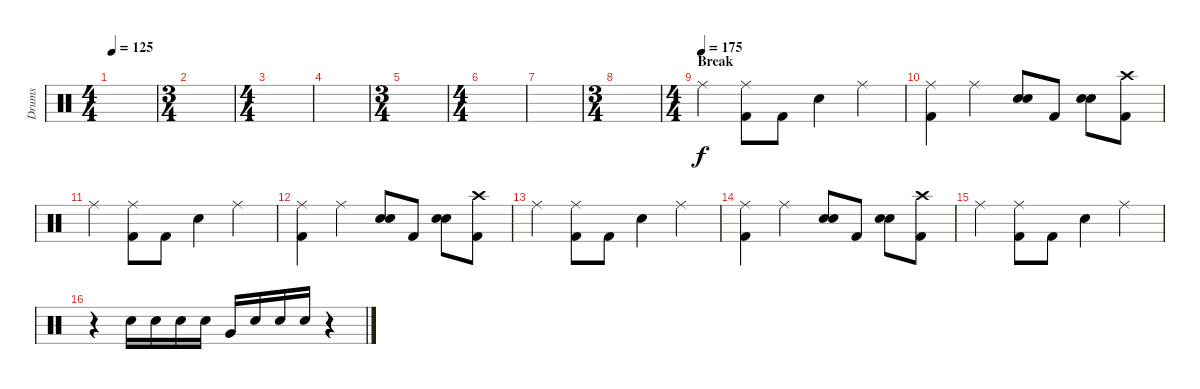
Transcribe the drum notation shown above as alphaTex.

\track ("Drums" "Drums") {instrument percussion}
\staff {score}
\articulation defaults
\ts (4 4)
\tempo 125
\clef neutral
\ks c
|
\ts (3 4)
|
\ts (4 4)
|
|
\ts (3 4)
|
\ts (4 4)
|
|
\ts (3 4)
|
\ts (4 4)
\section ("" "Break")
\tempo (175)
"Ride (middle)".4 ("Ride (middle)" "Kick (hit) 2").8 "Kick (hit) 2".8 "Snare (hit) 2".4 "Ride (middle)".4 |
("Ride (middle)" "Kick (hit) 2").4 "Ride (middle)".4 ("Snare (hit) 2" "Snare (hit) 2").8 "Kick (hit) 2".8 ("Snare (hit) 2" "Snare (hit) 2").8 ("Crash high (hit)" "Kick (hit) 2").8 |
"Ride (middle)".4 ("Ride (middle)" "Kick (hit) 2").8 "Kick (hit) 2".8 "Snare (hit) 2".4 "Ride (middle)".4 |
("Ride (middle)" "Kick (hit) 2").4 "Ride (middle)".4 ("Snare (hit) 2" "Snare (hit) 2").8 "Kick (hit) 2".8 ("Snare (hit) 2" "Snare (hit) 2").8 ("Crash high (hit)" "Kick (hit) 2").8 |
"Ride (middle)".4 ("Ride (middle)" "Kick (hit) 2").8 "Kick (hit) 2".8 "Snare (hit) 2".4 "Ride (middle)".4 |
("Ride (middle)" "Kick (hit) 2").4 "Ride (middle)".4 ("Snare (hit) 2" "Snare (hit) 2").8 "Kick (hit) 2".8 ("Snare (hit) 2" "Snare (hit) 2").8 ("Crash high (hit)" "Kick (hit) 2").8 |
"Ride (middle)".4 ("Ride (middle)" "Kick (hit) 2").8 "Kick (hit) 2".8 "Snare (hit) 2".4 "Ride (middle)".4 |
r.4 "Snare (hit) 2".16 "Snare (hit) 2".16 "Snare (hit) 2".16 "Snare (hit) 2".16 "Very Low Tom (hit)".16 "Snare (hit) 2".16 "Snare (hit) 2".16 "Snare (hit) 2".16 r.4
